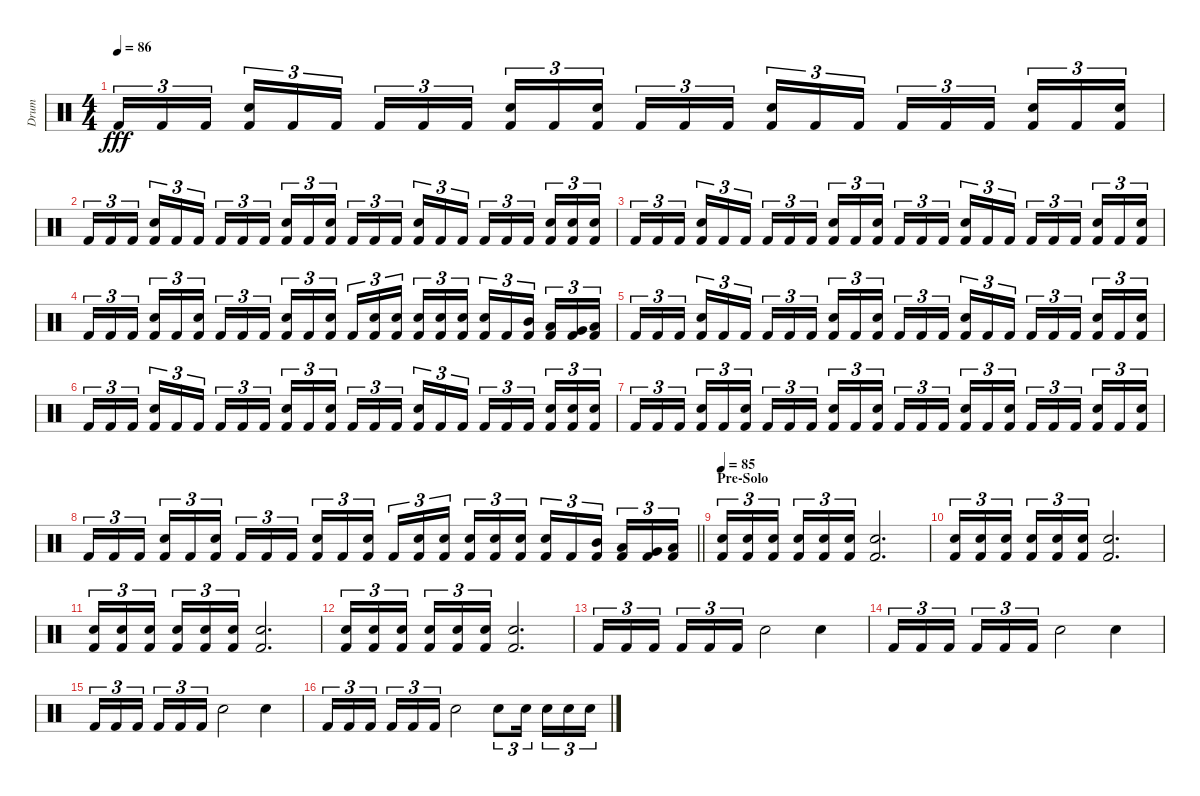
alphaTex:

\track ("Drum" "Drum") {instrument percussion}
\staff {score}
\articulation defaults
\ts (4 4)
\section ("" "")
\tempo 86
\clef neutral
\ks c "Kick (hit) 2".16{tu (3 2) dy fff} "Kick (hit) 2".16{tu (3 2)} "Kick (hit) 2".16{tu (3 2) beam splitsecondary}
("Snare (hit) 2" "Kick (hit) 2").16{tu (3 2)} "Kick (hit) 2".16{tu (3 2)} "Kick (hit) 2".16{tu (3 2)} "Kick (hit) 2".16{tu (3 2)} "Kick (hit) 2".16{tu (3 2)} "Kick (hit) 2".16{tu (3 2) beam splitsecondary} ("Snare (hit) 2" "Kick (hit) 2").16{tu (3 2)} "Kick (hit) 2".16{tu (3 2)} ("Snare (hit) 2" "Kick (hit) 2").16{tu (3 2)} "Kick (hit) 2".16{tu (3 2)} "Kick (hit) 2".16{tu (3 2)} "Kick (hit) 2".16{tu (3 2) beam splitsecondary} ("Snare (hit) 2" "Kick (hit) 2").16{tu (3 2)} "Kick (hit) 2".16{tu (3 2)} "Kick (hit) 2".16{tu (3 2)} "Kick (hit) 2".16{tu (3 2)} "Kick (hit) 2".16{tu (3 2)} "Kick (hit) 2".16{tu (3 2) beam splitsecondary} ("Snare (hit) 2" "Kick (hit) 2").16{tu (3 2)} "Kick (hit) 2".16{tu (3 2)} ("Snare (hit) 2" "Kick (hit) 2").16{tu (3 2)} |
"Kick (hit) 2".16{tu (3 2)} "Kick (hit) 2".16{tu (3 2)} "Kick (hit) 2".16{tu (3 2) beam splitsecondary} ("Snare (hit) 2" "Kick (hit) 2").16{tu (3 2)} "Kick (hit) 2".16{tu (3 2)} "Kick (hit) 2".16{tu (3 2)} "Kick (hit) 2".16{tu (3 2)} "Kick (hit) 2".16{tu (3 2)} "Kick (hit) 2".16{tu (3 2) beam splitsecondary} ("Snare (hit) 2" "Kick (hit) 2").16{tu (3 2)} "Kick (hit) 2".16{tu (3 2)} ("Snare (hit) 2" "Kick (hit) 2").16{tu (3 2)} "Kick (hit) 2".16{tu (3 2)} "Kick (hit) 2".16{tu (3 2)} "Kick (hit) 2".16{tu (3 2) beam splitsecondary} ("Snare (hit) 2" "Kick (hit) 2").16{tu (3 2)} "Kick (hit) 2".16{tu (3 2)} "Kick (hit) 2".16{tu (3 2)} "Kick (hit) 2".16{tu (3 2)} "Kick (hit) 2".16{tu (3 2)} "Kick (hit) 2".16{tu (3 2) beam splitsecondary} ("Snare (hit) 2" "Kick (hit) 2").16{tu (3 2)} ("Snare (hit) 2" "Kick (hit) 2").16{tu (3 2)} ("Snare (hit) 2" "Kick (hit) 2").16{tu (3 2)} |
"Kick (hit) 2".16{tu (3 2)} "Kick (hit) 2".16{tu (3 2)} "Kick (hit) 2".16{tu (3 2) beam splitsecondary} ("Snare (hit) 2" "Kick (hit) 2").16{tu (3 2)} "Kick (hit) 2".16{tu (3 2)} "Kick (hit) 2".16{tu (3 2)} "Kick (hit) 2".16{tu (3 2)} "Kick (hit) 2".16{tu (3 2)} "Kick (hit) 2".16{tu (3 2) beam splitsecondary} ("Snare (hit) 2" "Kick (hit) 2").16{tu (3 2)} "Kick (hit) 2".16{tu (3 2)} ("Snare (hit) 2" "Kick (hit) 2").16{tu (3 2)} "Kick (hit) 2".16{tu (3 2)} "Kick (hit) 2".16{tu (3 2)} "Kick (hit) 2".16{tu (3 2) beam splitsecondary} ("Snare (hit) 2" "Kick (hit) 2").16{tu (3 2)} "Kick (hit) 2".16{tu (3 2)} "Kick (hit) 2".16{tu (3 2)} "Kick (hit) 2".16{tu (3 2)} "Kick (hit) 2".16{tu (3 2)} "Kick (hit) 2".16{tu (3 2) beam splitsecondary} ("Snare (hit) 2" "Kick (hit) 2").16{tu (3 2)} "Kick (hit) 2".16{tu (3 2)} ("Snare (hit) 2" "Kick (hit) 2").16{tu (3 2)} |
"Kick (hit) 2".16{tu (3 2)} "Kick (hit) 2".16{tu (3 2)} "Kick (hit) 2".16{tu (3 2) beam splitsecondary} ("Snare (hit) 2" "Kick (hit) 2").16{tu (3 2)} "Kick (hit) 2".16{tu (3 2)} ("Snare (hit) 2" "Kick (hit) 2").16{tu (3 2)} "Kick (hit) 2".16{tu (3 2)} "Kick (hit) 2".16{tu (3 2)} "Kick (hit) 2".16{tu (3 2) beam splitsecondary} ("Snare (hit) 2" "Kick (hit) 2").16{tu (3 2)} "Kick (hit) 2".16{tu (3 2)} ("Snare (hit) 2" "Kick (hit) 2").16{tu (3 2)} "Kick (hit) 2".16{tu (3 2)} ("Snare (hit) 2" "Kick (hit) 2").16{tu (3 2)} ("Snare (hit) 2" "Kick (hit) 2").16{tu (3 2) beam splitsecondary} ("Snare (hit) 2" "Kick (hit) 2").16{tu (3 2)} ("Snare (hit) 2" "Kick (hit) 2").16{tu (3 2)} ("Snare (hit) 2" "Kick (hit) 2").16{tu (3 2)} ("Snare (hit) 2" "Kick (hit) 2").16{tu (3 2)} "Kick (hit) 2".16{tu (3 2)} ("Mid Tom (hit)" "Kick (hit) 2").16{tu (3 2) beam splitsecondary} ("Low Tom (hit)" "Kick (hit) 2").16{tu (3 2)} ("Very Low Tom (hit)" "Kick (hit) 2").16{tu (3 2)} ("Low Floor Tom (hit)" "Kick (hit) 2").16{tu (3 2)} |
"Kick (hit) 2".16{tu (3 2)} "Kick (hit) 2".16{tu (3 2)} "Kick (hit) 2".16{tu (3 2) beam splitsecondary} ("Snare (hit) 2" "Kick (hit) 2").16{tu (3 2)} "Kick (hit) 2".16{tu (3 2)} "Kick (hit) 2".16{tu (3 2)} "Kick (hit) 2".16{tu (3 2)} "Kick (hit) 2".16{tu (3 2)} "Kick (hit) 2".16{tu (3 2) beam splitsecondary} ("Snare (hit) 2" "Kick (hit) 2").16{tu (3 2)} "Kick (hit) 2".16{tu (3 2)} ("Snare (hit) 2" "Kick (hit) 2").16{tu (3 2)} "Kick (hit) 2".16{tu (3 2)} "Kick (hit) 2".16{tu (3 2)} "Kick (hit) 2".16{tu (3 2) beam splitsecondary} ("Snare (hit) 2" "Kick (hit) 2").16{tu (3 2)} "Kick (hit) 2".16{tu (3 2)} "Kick (hit) 2".16{tu (3 2)} "Kick (hit) 2".16{tu (3 2)} "Kick (hit) 2".16{tu (3 2)} "Kick (hit) 2".16{tu (3 2) beam splitsecondary} ("Snare (hit) 2" "Kick (hit) 2").16{tu (3 2)} "Kick (hit) 2".16{tu (3 2)} ("Snare (hit) 2" "Kick (hit) 2").16{tu (3 2)} |
"Kick (hit) 2".16{tu (3 2)} "Kick (hit) 2".16{tu (3 2)} "Kick (hit) 2".16{tu (3 2) beam splitsecondary} ("Snare (hit) 2" "Kick (hit) 2").16{tu (3 2)} "Kick (hit) 2".16{tu (3 2)} "Kick (hit) 2".16{tu (3 2)} "Kick (hit) 2".16{tu (3 2)} "Kick (hit) 2".16{tu (3 2)} "Kick (hit) 2".16{tu (3 2) beam splitsecondary} ("Snare (hit) 2" "Kick (hit) 2").16{tu (3 2)} "Kick (hit) 2".16{tu (3 2)} ("Snare (hit) 2" "Kick (hit) 2").16{tu (3 2)} "Kick (hit) 2".16{tu (3 2)} "Kick (hit) 2".16{tu (3 2)} "Kick (hit) 2".16{tu (3 2) beam splitsecondary} ("Snare (hit) 2" "Kick (hit) 2").16{tu (3 2)} "Kick (hit) 2".16{tu (3 2)} "Kick (hit) 2".16{tu (3 2)} "Kick (hit) 2".16{tu (3 2)} "Kick (hit) 2".16{tu (3 2)} "Kick (hit) 2".16{tu (3 2) beam splitsecondary} ("Snare (hit) 2" "Kick (hit) 2").16{tu (3 2)} ("Snare (hit) 2" "Kick (hit) 2").16{tu (3 2)} ("Snare (hit) 2" "Kick (hit) 2").16{tu (3 2)} |
"Kick (hit) 2".16{tu (3 2)} "Kick (hit) 2".16{tu (3 2)} "Kick (hit) 2".16{tu (3 2) beam splitsecondary} ("Snare (hit) 2" "Kick (hit) 2").16{tu (3 2)} "Kick (hit) 2".16{tu (3 2)} ("Snare (hit) 2" "Kick (hit) 2").16{tu (3 2)} "Kick (hit) 2".16{tu (3 2)} "Kick (hit) 2".16{tu (3 2)} "Kick (hit) 2".16{tu (3 2) beam splitsecondary} ("Snare (hit) 2" "Kick (hit) 2").16{tu (3 2)} "Kick (hit) 2".16{tu (3 2)} ("Snare (hit) 2" "Kick (hit) 2").16{tu (3 2)} "Kick (hit) 2".16{tu (3 2)} "Kick (hit) 2".16{tu (3 2)} "Kick (hit) 2".16{tu (3 2) beam splitsecondary} ("Snare (hit) 2" "Kick (hit) 2").16{tu (3 2)} "Kick (hit) 2".16{tu (3 2)} ("Snare (hit) 2" "Kick (hit) 2").16{tu (3 2)} "Kick (hit) 2".16{tu (3 2)} "Kick (hit) 2".16{tu (3 2)} "Kick (hit) 2".16{tu (3 2) beam splitsecondary} ("Snare (hit) 2" "Kick (hit) 2").16{tu (3 2)} "Kick (hit) 2".16{tu (3 2)} ("Snare (hit) 2" "Kick (hit) 2").16{tu (3 2)} |
\barLineRight lightlight "Kick (hit) 2".16{tu (3 2)} "Kick (hit) 2".16{tu (3 2)} "Kick (hit) 2".16{tu (3 2) beam splitsecondary}
("Snare (hit) 2" "Kick (hit) 2").16{tu (3 2)} "Kick (hit) 2".16{tu (3 2)} ("Snare (hit) 2" "Kick (hit) 2").16{tu (3 2)} "Kick (hit) 2".16{tu (3 2)} "Kick (hit) 2".16{tu (3 2)} "Kick (hit) 2".16{tu (3 2) beam splitsecondary} ("Snare (hit) 2" "Kick (hit) 2").16{tu (3 2)} "Kick (hit) 2".16{tu (3 2)} ("Snare (hit) 2" "Kick (hit) 2").16{tu (3 2)} "Kick (hit) 2".16{tu (3 2)} ("Snare (hit) 2" "Kick (hit) 2").16{tu (3 2)} ("Snare (hit) 2" "Kick (hit) 2").16{tu (3 2) beam splitsecondary} ("Snare (hit) 2" "Kick (hit) 2").16{tu (3 2)} ("Snare (hit) 2" "Kick (hit) 2").16{tu (3 2)} ("Snare (hit) 2" "Kick (hit) 2").16{tu (3 2)} ("Snare (hit) 2" "Kick (hit) 2").16{tu (3 2)} "Kick (hit) 2".16{tu (3 2)} ("Mid Tom (hit)" "Kick (hit) 2").16{tu (3 2) beam splitsecondary} ("Low Tom (hit)" "Kick (hit) 2").16{tu (3 2)} ("Very Low Tom (hit)" "Kick (hit) 2").16{tu (3 2)} ("Low Floor Tom (hit)" "Kick (hit) 2").16{tu (3 2)} |
\section ("" "Pre-Solo")
\tempo 85
("Snare (hit) 2" "Kick (hit) 2").16{tu (3 2)} ("Snare (hit) 2" "Kick (hit) 2").16{tu (3 2)} ("Snare (hit) 2" "Kick (hit) 2").16{tu (3 2) beam splitsecondary} ("Snare (hit) 2" "Kick (hit) 2").16{tu (3 2)} ("Snare (hit) 2" "Kick (hit) 2").16{tu (3 2)} ("Snare (hit) 2" "Kick (hit) 2").16{tu (3 2)} ("Snare (hit) 2" "Kick (hit) 2").2{d} |
("Snare (hit) 2" "Kick (hit) 2").16{tu (3 2)} ("Snare (hit) 2" "Kick (hit) 2").16{tu (3 2)} ("Snare (hit) 2" "Kick (hit) 2").16{tu (3 2) beam splitsecondary} ("Snare (hit) 2" "Kick (hit) 2").16{tu (3 2)} ("Snare (hit) 2" "Kick (hit) 2").16{tu (3 2)} ("Snare (hit) 2" "Kick (hit) 2").16{tu (3 2)} ("Snare (hit) 2" "Kick (hit) 2").2{d} |
("Snare (hit) 2" "Kick (hit) 2").16{tu (3 2)} ("Snare (hit) 2" "Kick (hit) 2").16{tu (3 2)} ("Snare (hit) 2" "Kick (hit) 2").16{tu (3 2) beam splitsecondary} ("Snare (hit) 2" "Kick (hit) 2").16{tu (3 2)} ("Snare (hit) 2" "Kick (hit) 2").16{tu (3 2)} ("Snare (hit) 2" "Kick (hit) 2").16{tu (3 2)} ("Snare (hit) 2" "Kick (hit) 2").2{d} |
("Snare (hit) 2" "Kick (hit) 2").16{tu (3 2)} ("Snare (hit) 2" "Kick (hit) 2").16{tu (3 2)} ("Snare (hit) 2" "Kick (hit) 2").16{tu (3 2) beam splitsecondary} ("Snare (hit) 2" "Kick (hit) 2").16{tu (3 2)} ("Snare (hit) 2" "Kick (hit) 2").16{tu (3 2)} ("Snare (hit) 2" "Kick (hit) 2").16{tu (3 2)} ("Snare (hit) 2" "Kick (hit) 2").2{d} |
"Kick (hit) 2".16{tu (3 2)} "Kick (hit) 2".16{tu (3 2)} "Kick (hit) 2".16{tu (3 2) beam splitsecondary} "Kick (hit) 2".16{tu (3 2)} "Kick (hit) 2".16{tu (3 2)} "Kick (hit) 2".16{tu (3 2)} "Snare (hit) 2".2 "Snare (hit) 2".4 |
"Kick (hit) 2".16{tu (3 2)} "Kick (hit) 2".16{tu (3 2)} "Kick (hit) 2".16{tu (3 2) beam splitsecondary} "Kick (hit) 2".16{tu (3 2)} "Kick (hit) 2".16{tu (3 2)} "Kick (hit) 2".16{tu (3 2)} "Snare (hit) 2".2 "Snare (hit) 2".4 |
"Kick (hit) 2".16{tu (3 2)} "Kick (hit) 2".16{tu (3 2)} "Kick (hit) 2".16{tu (3 2) beam splitsecondary} "Kick (hit) 2".16{tu (3 2)} "Kick (hit) 2".16{tu (3 2)} "Kick (hit) 2".16{tu (3 2)} "Snare (hit) 2".2 "Snare (hit) 2".4 |
"Kick (hit) 2".16{tu (3 2)} "Kick (hit) 2".16{tu (3 2)} "Kick (hit) 2".16{tu (3 2) beam splitsecondary} "Kick (hit) 2".16{tu (3 2)} "Kick (hit) 2".16{tu (3 2)} "Kick (hit) 2".16{tu (3 2)} "Snare (hit) 2".2 "Snare (hit) 2".8{tu (3 2)} "Snare (hit) 2".16{tu (3 2) beam splitsecondary} "Snare (hit) 2".16{tu (3 2)} "Snare (hit) 2".16{tu (3 2)} "Snare (hit) 2".16{tu (3 2)}
